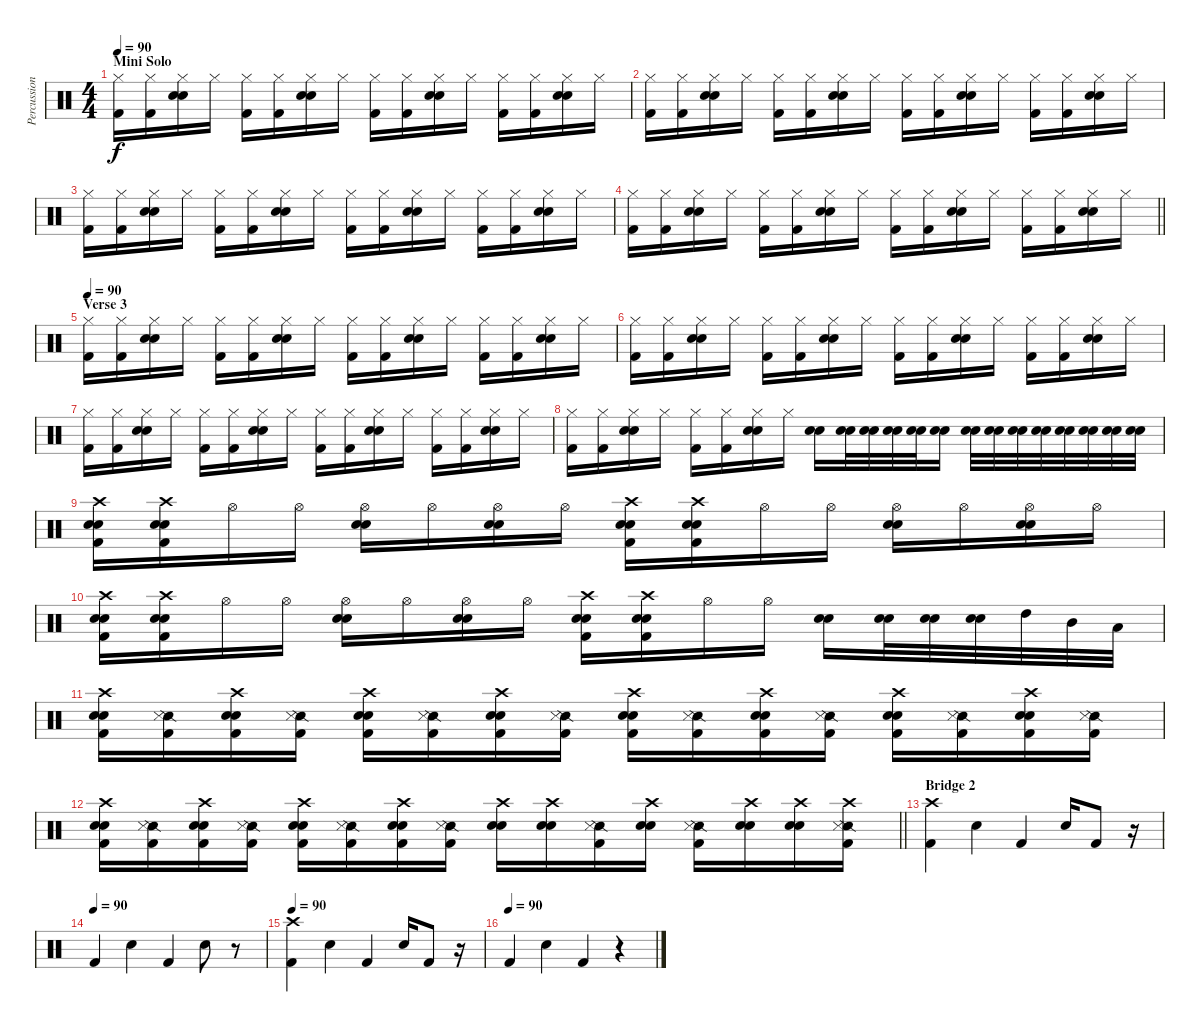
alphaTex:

\track ("Percussion" "Percussion") {instrument percussion}
\staff {score}
\articulation defaults
\ts (4 4)
\section ("" "Mini Solo")
\tempo 90
\clef neutral
\ks c
("Hi-Hat (closed)" "Kick (hit) 2").16{dy f} ("Hi-Hat (closed)" "Kick (hit) 2").16 ("Electric Snare (hit)" "Hi-Hat (closed)" "Snare (hit) 2").16 "Hi-Hat (closed)".16 ("Hi-Hat (closed)" "Kick (hit) 2").16 ("Hi-Hat (closed)" "Kick (hit) 2").16 ("Electric Snare (hit)" "Hi-Hat (closed)" "Snare (hit) 2").16 "Hi-Hat (closed)".16 ("Hi-Hat (closed)" "Kick (hit) 2").16 ("Hi-Hat (closed)" "Kick (hit) 2").16 ("Electric Snare (hit)" "Hi-Hat (closed)" "Snare (hit) 2").16 "Hi-Hat (closed)".16 ("Hi-Hat (closed)" "Kick (hit) 2").16 ("Hi-Hat (closed)" "Kick (hit) 2").16 ("Electric Snare (hit)" "Hi-Hat (closed)" "Snare (hit) 2").16 "Hi-Hat (closed)".16 |
("Hi-Hat (closed)" "Kick (hit) 2").16 ("Hi-Hat (closed)" "Kick (hit) 2").16 ("Electric Snare (hit)" "Hi-Hat (closed)" "Snare (hit) 2").16 "Hi-Hat (closed)".16 ("Hi-Hat (closed)" "Kick (hit) 2").16 ("Hi-Hat (closed)" "Kick (hit) 2").16 ("Electric Snare (hit)" "Hi-Hat (closed)" "Snare (hit) 2").16 "Hi-Hat (closed)".16 ("Hi-Hat (closed)" "Kick (hit) 2").16 ("Hi-Hat (closed)" "Kick (hit) 2").16 ("Electric Snare (hit)" "Hi-Hat (closed)" "Snare (hit) 2").16 "Hi-Hat (closed)".16 ("Hi-Hat (closed)" "Kick (hit) 2").16 ("Hi-Hat (closed)" "Kick (hit) 2").16 ("Electric Snare (hit)" "Hi-Hat (closed)" "Snare (hit) 2").16 "Hi-Hat (closed)".16 |
("Hi-Hat (closed)" "Kick (hit) 2").16 ("Hi-Hat (closed)" "Kick (hit) 2").16 ("Electric Snare (hit)" "Hi-Hat (closed)" "Snare (hit) 2").16 "Hi-Hat (closed)".16 ("Hi-Hat (closed)" "Kick (hit) 2").16 ("Hi-Hat (closed)" "Kick (hit) 2").16 ("Electric Snare (hit)" "Hi-Hat (closed)" "Snare (hit) 2").16 "Hi-Hat (closed)".16 ("Hi-Hat (closed)" "Kick (hit) 2").16 ("Hi-Hat (closed)" "Kick (hit) 2").16 ("Electric Snare (hit)" "Hi-Hat (closed)" "Snare (hit) 2").16 "Hi-Hat (closed)".16 ("Hi-Hat (closed)" "Kick (hit) 2").16 ("Hi-Hat (closed)" "Kick (hit) 2").16 ("Electric Snare (hit)" "Hi-Hat (closed)" "Snare (hit) 2").16 "Hi-Hat (closed)".16 |
\barLineRight lightlight
("Hi-Hat (closed)" "Kick (hit) 2").16 ("Hi-Hat (closed)" "Kick (hit) 2").16 ("Electric Snare (hit)" "Hi-Hat (closed)" "Snare (hit) 2").16 "Hi-Hat (closed)".16 ("Hi-Hat (closed)" "Kick (hit) 2").16 ("Hi-Hat (closed)" "Kick (hit) 2").16 ("Electric Snare (hit)" "Hi-Hat (closed)" "Snare (hit) 2").16 "Hi-Hat (closed)".16 ("Hi-Hat (closed)" "Kick (hit) 2").16 ("Hi-Hat (closed)" "Kick (hit) 2").16 ("Electric Snare (hit)" "Hi-Hat (closed)" "Snare (hit) 2").16 "Hi-Hat (closed)".16 ("Hi-Hat (closed)" "Kick (hit) 2").16 ("Hi-Hat (closed)" "Kick (hit) 2").16 ("Electric Snare (hit)" "Hi-Hat (closed)" "Snare (hit) 2").16 "Hi-Hat (closed)".16 |
\section ("" "Verse 3")
\tempo 90
("Hi-Hat (closed)" "Kick (hit) 2").16 ("Hi-Hat (closed)" "Kick (hit) 2").16 ("Electric Snare (hit)" "Hi-Hat (closed)" "Snare (hit) 2").16 "Hi-Hat (closed)".16 ("Hi-Hat (closed)" "Kick (hit) 2").16 ("Hi-Hat (closed)" "Kick (hit) 2").16 ("Electric Snare (hit)" "Hi-Hat (closed)" "Snare (hit) 2").16 "Hi-Hat (closed)".16 ("Hi-Hat (closed)" "Kick (hit) 2").16 ("Hi-Hat (closed)" "Kick (hit) 2").16 ("Electric Snare (hit)" "Hi-Hat (closed)" "Snare (hit) 2").16 "Hi-Hat (closed)".16 ("Hi-Hat (closed)" "Kick (hit) 2").16 ("Hi-Hat (closed)" "Kick (hit) 2").16 ("Electric Snare (hit)" "Hi-Hat (closed)" "Snare (hit) 2").16 "Hi-Hat (closed)".16 |
("Hi-Hat (closed)" "Kick (hit) 2").16 ("Hi-Hat (closed)" "Kick (hit) 2").16 ("Electric Snare (hit)" "Hi-Hat (closed)" "Snare (hit) 2").16 "Hi-Hat (closed)".16 ("Hi-Hat (closed)" "Kick (hit) 2").16 ("Hi-Hat (closed)" "Kick (hit) 2").16 ("Electric Snare (hit)" "Hi-Hat (closed)" "Snare (hit) 2").16 "Hi-Hat (closed)".16 ("Hi-Hat (closed)" "Kick (hit) 2").16 ("Hi-Hat (closed)" "Kick (hit) 2").16 ("Electric Snare (hit)" "Hi-Hat (closed)" "Snare (hit) 2").16 "Hi-Hat (closed)".16 ("Hi-Hat (closed)" "Kick (hit) 2").16 ("Hi-Hat (closed)" "Kick (hit) 2").16 ("Electric Snare (hit)" "Hi-Hat (closed)" "Snare (hit) 2").16 "Hi-Hat (closed)".16 |
("Hi-Hat (closed)" "Kick (hit) 2").16 ("Hi-Hat (closed)" "Kick (hit) 2").16 ("Electric Snare (hit)" "Hi-Hat (closed)" "Snare (hit) 2").16 "Hi-Hat (closed)".16 ("Hi-Hat (closed)" "Kick (hit) 2").16 ("Hi-Hat (closed)" "Kick (hit) 2").16 ("Electric Snare (hit)" "Hi-Hat (closed)" "Snare (hit) 2").16 "Hi-Hat (closed)".16 ("Hi-Hat (closed)" "Kick (hit) 2").16 ("Hi-Hat (closed)" "Kick (hit) 2").16 ("Electric Snare (hit)" "Hi-Hat (closed)" "Snare (hit) 2").16 "Hi-Hat (closed)".16 ("Hi-Hat (closed)" "Kick (hit) 2").16 ("Hi-Hat (closed)" "Kick (hit) 2").16 ("Electric Snare (hit)" "Hi-Hat (closed)" "Snare (hit) 2").16 "Hi-Hat (closed)".16 |
("Hi-Hat (closed)" "Kick (hit) 2").16 ("Hi-Hat (closed)" "Kick (hit) 2").16 ("Electric Snare (hit)" "Hi-Hat (closed)" "Snare (hit) 2").16 "Hi-Hat (closed)".16 ("Hi-Hat (closed)" "Kick (hit) 2").16 ("Hi-Hat (closed)" "Kick (hit) 2").16 ("Electric Snare (hit)" "Hi-Hat (closed)" "Snare (hit) 2").16 "Hi-Hat (closed)".16 ("Electric Snare (hit)" "Snare (hit) 2").16 ("Electric Snare (hit)" "Snare (hit) 2").32 ("Electric Snare (hit)" "Snare (hit) 2").32 ("Electric Snare (hit)" "Snare (hit) 2").32 ("Electric Snare (hit)" "Snare (hit) 2").32 ("Electric Snare (hit)" "Snare (hit) 2").16 ("Electric Snare (hit)" "Snare (hit) 2").32 ("Electric Snare (hit)" "Snare (hit) 2").32 ("Electric Snare (hit)" "Snare (hit) 2").32 ("Electric Snare (hit)" "Snare (hit) 2").32 ("Electric Snare (hit)" "Snare (hit) 2").32 ("Electric Snare (hit)" "Snare (hit) 2").32 ("Electric Snare (hit)" "Snare (hit) 2").32 ("Electric Snare (hit)" "Snare (hit) 2").32 |
("Electric Snare (hit)" "Crash high (hit)" "Snare (hit) 2" "Kick (hit) 2").16 ("Electric Snare (hit)" "Crash high (hit)" "Snare (hit) 2" "Kick (hit) 2").16 "Hi-Hat (open)".16 "Hi-Hat (open)".16 ("Electric Snare (hit)" "Hi-Hat (open)" "Snare (hit) 2").16 "Hi-Hat (open)".16 ("Electric Snare (hit)" "Hi-Hat (open)" "Snare (hit) 2").16 "Hi-Hat (open)".16 ("Electric Snare (hit)" "Crash high (hit)" "Snare (hit) 2" "Kick (hit) 2").16 ("Electric Snare (hit)" "Crash high (hit)" "Snare (hit) 2" "Kick (hit) 2").16 "Hi-Hat (open)".16 "Hi-Hat (open)".16 ("Electric Snare (hit)" "Hi-Hat (open)" "Snare (hit) 2").16 "Hi-Hat (open)".16 ("Electric Snare (hit)" "Hi-Hat (open)" "Snare (hit) 2").16 "Hi-Hat (open)".16 |
("Electric Snare (hit)" "Crash high (hit)" "Snare (hit) 2" "Kick (hit) 2").16 ("Electric Snare (hit)" "Crash high (hit)" "Snare (hit) 2" "Kick (hit) 2").16 "Hi-Hat (open)".16 "Hi-Hat (open)".16 ("Electric Snare (hit)" "Hi-Hat (open)" "Snare (hit) 2").16 "Hi-Hat (open)".16 ("Electric Snare (hit)" "Hi-Hat (open)" "Snare (hit) 2").16 "Hi-Hat (open)".16 ("Electric Snare (hit)" "Crash high (hit)" "Snare (hit) 2" "Kick (hit) 2").16 ("Electric Snare (hit)" "Crash high (hit)" "Snare (hit) 2" "Kick (hit) 2").16 "Hi-Hat (open)".16 "Hi-Hat (open)".16 ("Electric Snare (hit)" "Snare (hit) 2").16 ("Electric Snare (hit)" "Snare (hit) 2").32 ("Electric Snare (hit)" "Snare (hit) 2").32 ("Electric Snare (hit)" "Snare (hit) 2").32 "High Tom (hit)".32 "Mid Tom (hit)".32 "Low Tom (hit)".32 |
("Electric Snare (hit)" "Crash high (hit)" "Snare (hit) 2" "Kick (hit) 2").16 ("Snare (side stick) 2" "Metronome (hit)" "Kick (hit) 2").16 ("Electric Snare (hit)" "Crash high (hit)" "Snare (hit) 2" "Kick (hit) 2").16 ("Snare (side stick) 2" "Metronome (hit)" "Kick (hit) 2").16 ("Electric Snare (hit)" "Crash high (hit)" "Snare (hit) 2" "Kick (hit) 2").16 ("Snare (side stick) 2" "Metronome (hit)" "Kick (hit) 2").16 ("Electric Snare (hit)" "Crash high (hit)" "Snare (hit) 2" "Kick (hit) 2").16 ("Snare (side stick) 2" "Metronome (hit)" "Kick (hit) 2").16 ("Electric Snare (hit)" "Crash high (hit)" "Snare (hit) 2" "Kick (hit) 2").16 ("Snare (side stick) 2" "Metronome (hit)" "Kick (hit) 2").16 ("Electric Snare (hit)" "Crash high (hit)" "Snare (hit) 2" "Kick (hit) 2").16 ("Snare (side stick) 2" "Metronome (hit)" "Kick (hit) 2").16 ("Electric Snare (hit)" "Crash high (hit)" "Snare (hit) 2" "Kick (hit) 2").16 ("Snare (side stick) 2" "Metronome (hit)" "Kick (hit) 2").16 ("Electric Snare (hit)" "Crash high (hit)" "Snare (hit) 2" "Kick (hit) 2").16 ("Snare (side stick) 2" "Metronome (hit)" "Kick (hit) 2").16 |
\barLineRight lightlight
("Electric Snare (hit)" "Crash high (hit)" "Snare (hit) 2" "Kick (hit) 2").16 ("Snare (side stick) 2" "Metronome (hit)" "Kick (hit) 2").16 ("Electric Snare (hit)" "Crash high (hit)" "Snare (hit) 2" "Kick (hit) 2").16 ("Snare (side stick) 2" "Metronome (hit)" "Kick (hit) 2").16 ("Electric Snare (hit)" "Crash high (hit)" "Snare (hit) 2" "Kick (hit) 2").16 ("Snare (side stick) 2" "Metronome (hit)" "Kick (hit) 2").16 ("Electric Snare (hit)" "Crash high (hit)" "Snare (hit) 2" "Kick (hit) 2").16 ("Snare (side stick) 2" "Metronome (hit)" "Kick (hit) 2").16 ("Electric Snare (hit)" "Crash high (hit)" "Snare (hit) 2").16 ("Electric Snare (hit)" "Crash high (hit)" "Snare (hit) 2").16 ("Snare (side stick) 2" "Metronome (hit)" "Kick (hit) 2").16 ("Electric Snare (hit)" "Crash high (hit)" "Snare (hit) 2").16 ("Snare (side stick) 2" "Metronome (hit)" "Kick (hit) 2").16 ("Electric Snare (hit)" "Crash high (hit)" "Snare (hit) 2").16 ("Electric Snare (hit)" "Crash high (hit)" "Snare (hit) 2").16 ("Snare (side stick) 2" "Crash high (hit)" "Metronome (hit)" "Kick (hit) 2").16 |
\section ("" "Bridge 2")
("Crash high (hit)" "Kick (hit) 2").4 "Snare (hit) 2".4 "Kick (hit) 2".4 "Snare (hit) 2".16 "Kick (hit) 2".8 r.16 |
\tempo (90)
"Kick (hit) 2".4 "Snare (hit) 2".4 "Kick (hit) 2".4 "Snare (hit) 2".8 r.8 |
\tempo 90
("Crash high (hit)" "Kick (hit) 2").4 "Snare (hit) 2".4 "Kick (hit) 2".4 "Snare (hit) 2".16 "Kick (hit) 2".8 r.16 |
\tempo (90)
"Kick (hit) 2".4 "Snare (hit) 2".4 "Kick (hit) 2".4 r.4
